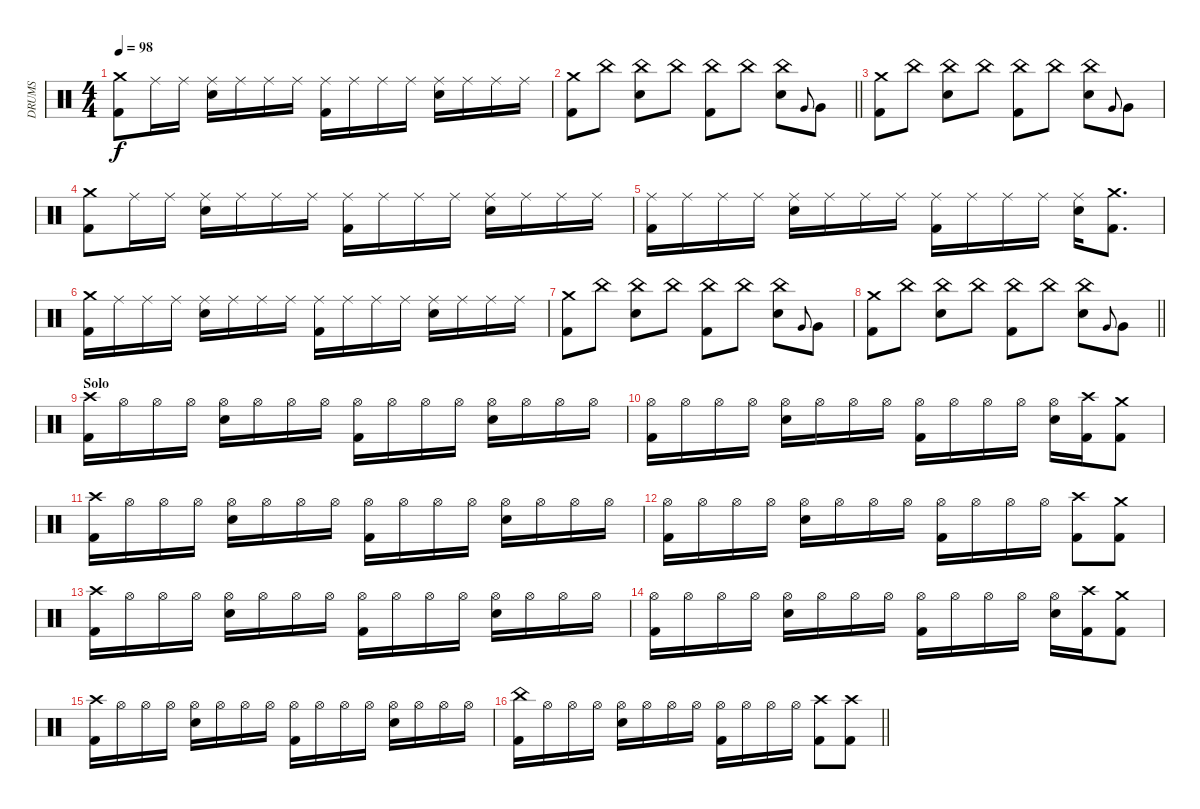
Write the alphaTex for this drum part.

\track ("DRUMS" "DRUMS") {instrument percussion}
\staff {score}
\articulation defaults
\ts (4 4)
\tempo 98
\clef neutral
\ks c
("Crash medium (hit)" "Kick (hit) 2").8{dy f} "Ride (middle)".16 "Ride (middle)".16 ("Ride (middle)" "Snare (hit) 2").16 "Ride (middle)".16 "Ride (middle)".16 "Ride (middle)".16 ("Ride (middle)" "Kick (hit) 2").16 "Ride (middle)".16 "Ride (middle)".16 "Ride (middle)".16 ("Ride (middle)" "Snare (hit) 2").16 "Ride (middle)".16 "Ride (middle)".16 "Ride (middle)".16 |
\barLineRight lightlight
("Crash medium (hit)" "Kick (hit) 2").8 "China (hit)".8 ("China (hit)" "Snare (hit) 2").8 "China (hit)".8 ("China (hit)" "Kick (hit) 2").8 "China (hit)".8 ("China (hit)" "Snare (hit) 2").8 "Very Low Tom (hit)".8{gr onbeat} "Very Low Tom (hit)".8 |
("Crash medium (hit)" "Kick (hit) 2").8 "China (hit)".8 ("China (hit)" "Snare (hit) 2").8 "China (hit)".8 ("China (hit)" "Kick (hit) 2").8 "China (hit)".8 ("China (hit)" "Snare (hit) 2").8 "Very Low Tom (hit)".8{gr onbeat} "Very Low Tom (hit)".8 |
("Crash medium (hit)" "Kick (hit) 2").8 "Ride (middle)".16 "Ride (middle)".16 ("Ride (middle)" "Snare (hit) 2").16 "Ride (middle)".16 "Ride (middle)".16 "Ride (middle)".16 ("Ride (middle)" "Kick (hit) 2").16 "Ride (middle)".16 "Ride (middle)".16 "Ride (middle)".16 ("Ride (middle)" "Snare (hit) 2").16 "Ride (middle)".16 "Ride (middle)".16 "Ride (middle)".16 |
("Ride (middle)" "Kick (hit) 2").16 "Ride (middle)".16 "Ride (middle)".16 "Ride (middle)".16 ("Ride (middle)" "Snare (hit) 2").16 "Ride (middle)".16 "Ride (middle)".16 "Ride (middle)".16 ("Ride (middle)" "Kick (hit) 2").16 "Ride (middle)".16 "Ride (middle)".16 "Ride (middle)".16 ("Ride (middle)" "Snare (hit) 2").16 ("Crash medium (hit)" "Kick (hit) 2").8{d} |
("Crash medium (hit)" "Kick (hit) 2").16 "Ride (middle)".16 "Ride (middle)".16 "Ride (middle)".16 ("Ride (middle)" "Snare (hit) 2").16 "Ride (middle)".16 "Ride (middle)".16 "Ride (middle)".16 ("Ride (middle)" "Kick (hit) 2").16 "Ride (middle)".16 "Ride (middle)".16 "Ride (middle)".16 ("Ride (middle)" "Snare (hit) 2").16 "Ride (middle)".16 "Ride (middle)".16 "Ride (middle)".16 |
("Crash medium (hit)" "Kick (hit) 2").8 "China (hit)".8 ("China (hit)" "Snare (hit) 2").8 "China (hit)".8 ("China (hit)" "Kick (hit) 2").8 "China (hit)".8 ("China (hit)" "Snare (hit) 2").8 "Very Low Tom (hit)".8{gr onbeat} "Very Low Tom (hit)".8 |
\barLineRight lightlight
("Crash medium (hit)" "Kick (hit) 2").8 "China (hit)".8 ("China (hit)" "Snare (hit) 2").8 "China (hit)".8 ("China (hit)" "Kick (hit) 2").8 "China (hit)".8 ("China (hit)" "Snare (hit) 2").8 "Very Low Tom (hit)".8{gr onbeat} "Very Low Tom (hit)".8 |
\section ("" "Solo")
("Crash high (hit)" "Kick (hit) 2").16 "Hi-Hat (open)".16 "Hi-Hat (open)".16 "Hi-Hat (open)".16 ("Hi-Hat (open)" "Snare (hit) 2").16 "Hi-Hat (open)".16 "Hi-Hat (open)".16 "Hi-Hat (open)".16 ("Hi-Hat (open)" "Kick (hit) 2").16 "Hi-Hat (open)".16 "Hi-Hat (open)".16 "Hi-Hat (open)".16 ("Hi-Hat (open)" "Snare (hit) 2").16 "Hi-Hat (open)".16 "Hi-Hat (open)".16 "Hi-Hat (open)".16 |
("Hi-Hat (open)" "Kick (hit) 2").16 "Hi-Hat (open)".16 "Hi-Hat (open)".16 "Hi-Hat (open)".16 ("Hi-Hat (open)" "Snare (hit) 2").16 "Hi-Hat (open)".16 "Hi-Hat (open)".16 "Hi-Hat (open)".16 ("Hi-Hat (open)" "Kick (hit) 2").16 "Hi-Hat (open)".16 "Hi-Hat (open)".16 "Hi-Hat (open)".16 ("Hi-Hat (open)" "Snare (hit) 2").16 ("Crash high (hit)" "Kick (hit) 2").16 ("Crash medium (hit)" "Kick (hit) 2").8 |
("Crash high (hit)" "Kick (hit) 2").16 "Hi-Hat (open)".16 "Hi-Hat (open)".16 "Hi-Hat (open)".16 ("Hi-Hat (open)" "Snare (hit) 2").16 "Hi-Hat (open)".16 "Hi-Hat (open)".16 "Hi-Hat (open)".16 ("Hi-Hat (open)" "Kick (hit) 2").16 "Hi-Hat (open)".16 "Hi-Hat (open)".16 "Hi-Hat (open)".16 ("Hi-Hat (open)" "Snare (hit) 2").16 "Hi-Hat (open)".16 "Hi-Hat (open)".16 "Hi-Hat (open)".16 |
("Hi-Hat (open)" "Kick (hit) 2").16 "Hi-Hat (open)".16 "Hi-Hat (open)".16 "Hi-Hat (open)".16 ("Hi-Hat (open)" "Snare (hit) 2").16 "Hi-Hat (open)".16 "Hi-Hat (open)".16 "Hi-Hat (open)".16 ("Hi-Hat (open)" "Kick (hit) 2").16 "Hi-Hat (open)".16 "Hi-Hat (open)".16 "Hi-Hat (open)".16 ("Crash high (hit)" "Kick (hit) 2").8 ("Crash medium (hit)" "Kick (hit) 2").8 |
("Crash high (hit)" "Kick (hit) 2").16 "Hi-Hat (open)".16 "Hi-Hat (open)".16 "Hi-Hat (open)".16 ("Hi-Hat (open)" "Snare (hit) 2").16 "Hi-Hat (open)".16 "Hi-Hat (open)".16 "Hi-Hat (open)".16 ("Hi-Hat (open)" "Kick (hit) 2").16 "Hi-Hat (open)".16 "Hi-Hat (open)".16 "Hi-Hat (open)".16 ("Hi-Hat (open)" "Snare (hit) 2").16 "Hi-Hat (open)".16 "Hi-Hat (open)".16 "Hi-Hat (open)".16 |
("Hi-Hat (open)" "Kick (hit) 2").16 "Hi-Hat (open)".16 "Hi-Hat (open)".16 "Hi-Hat (open)".16 ("Hi-Hat (open)" "Snare (hit) 2").16 "Hi-Hat (open)".16 "Hi-Hat (open)".16 "Hi-Hat (open)".16 ("Hi-Hat (open)" "Kick (hit) 2").16 "Hi-Hat (open)".16 "Hi-Hat (open)".16 "Hi-Hat (open)".16 ("Hi-Hat (open)" "Snare (hit) 2").16 ("Crash high (hit)" "Kick (hit) 2").16 ("Crash medium (hit)" "Kick (hit) 2").8 |
("Crash high (hit)" "Kick (hit) 2").16 "Hi-Hat (open)".16 "Hi-Hat (open)".16 "Hi-Hat (open)".16 ("Hi-Hat (open)" "Snare (hit) 2").16 "Hi-Hat (open)".16 "Hi-Hat (open)".16 "Hi-Hat (open)".16 ("Hi-Hat (open)" "Kick (hit) 2").16 "Hi-Hat (open)".16 "Hi-Hat (open)".16 "Hi-Hat (open)".16 ("Hi-Hat (open)" "Snare (hit) 2").16 "Hi-Hat (open)".16 "Hi-Hat (open)".16 "Hi-Hat (open)".16 |
\barLineRight lightlight
("China (hit)" "Kick (hit) 2").16 "Hi-Hat (open)".16 "Hi-Hat (open)".16 "Hi-Hat (open)".16 ("Hi-Hat (open)" "Snare (hit) 2").16 "Hi-Hat (open)".16 "Hi-Hat (open)".16 "Hi-Hat (open)".16 ("Hi-Hat (open)" "Kick (hit) 2").16 "Hi-Hat (open)".16 "Hi-Hat (open)".16 "Hi-Hat (open)".16 ("Crash high (hit)" "Kick (hit) 2").8 ("Crash high (hit)" "Kick (hit) 2").8
